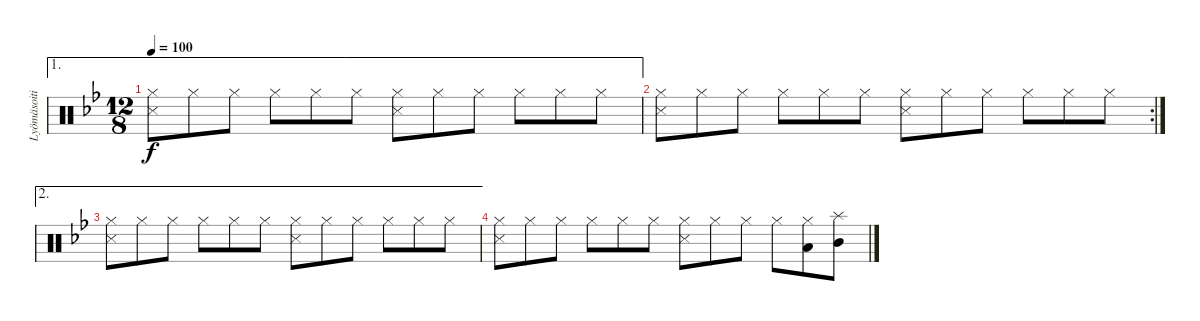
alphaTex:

\track ("Lyömäsoitin" "Lyömäsoiti") {instrument percussion}
\staff {score}
\articulation defaults
\ae 1
\ts (12 8)
\tempo 100
\clef neutral
\ks bb
("Hi-Hat (closed)" "Snare (side stick) 3").8{dy f} "Hi-Hat (closed)".8 "Hi-Hat (closed)".8 "Hi-Hat (closed)".8 "Hi-Hat (closed)".8 "Hi-Hat (closed)".8 ("Hi-Hat (closed)" "Snare (side stick) 3").8 "Hi-Hat (closed)".8 "Hi-Hat (closed)".8 "Hi-Hat (closed)".8 "Hi-Hat (closed)".8 "Hi-Hat (closed)".8 |
\rc 2
("Hi-Hat (closed)" "Snare (side stick) 3").8 "Hi-Hat (closed)".8 "Hi-Hat (closed)".8 "Hi-Hat (closed)".8 "Hi-Hat (closed)".8 "Hi-Hat (closed)".8 ("Hi-Hat (closed)" "Snare (side stick) 3").8 "Hi-Hat (closed)".8 "Hi-Hat (closed)".8 "Hi-Hat (closed)".8 "Hi-Hat (closed)".8 "Hi-Hat (closed)".8 |
\ae 2
("Hi-Hat (closed)" "Snare (side stick) 3").8 "Hi-Hat (closed)".8 "Hi-Hat (closed)".8 "Hi-Hat (closed)".8 "Hi-Hat (closed)".8 "Hi-Hat (closed)".8 ("Hi-Hat (closed)" "Snare (side stick) 3").8 "Hi-Hat (closed)".8 "Hi-Hat (closed)".8 "Hi-Hat (closed)".8 "Hi-Hat (closed)".8 "Hi-Hat (closed)".8 |
("Hi-Hat (closed)" "Snare (side stick) 3").8 "Hi-Hat (closed)".8 "Hi-Hat (closed)".8 "Hi-Hat (closed)".8 "Hi-Hat (closed)".8 "Hi-Hat (closed)".8 ("Hi-Hat (closed)" "Snare (side stick) 3").8 "Hi-Hat (closed)".8 "Hi-Hat (closed)".8 "Hi-Hat (closed)".8 ("Hi-Hat (closed)" "Low Tom (hit)").8 ("Splash (hit)" "Mid Tom (hit)").8
